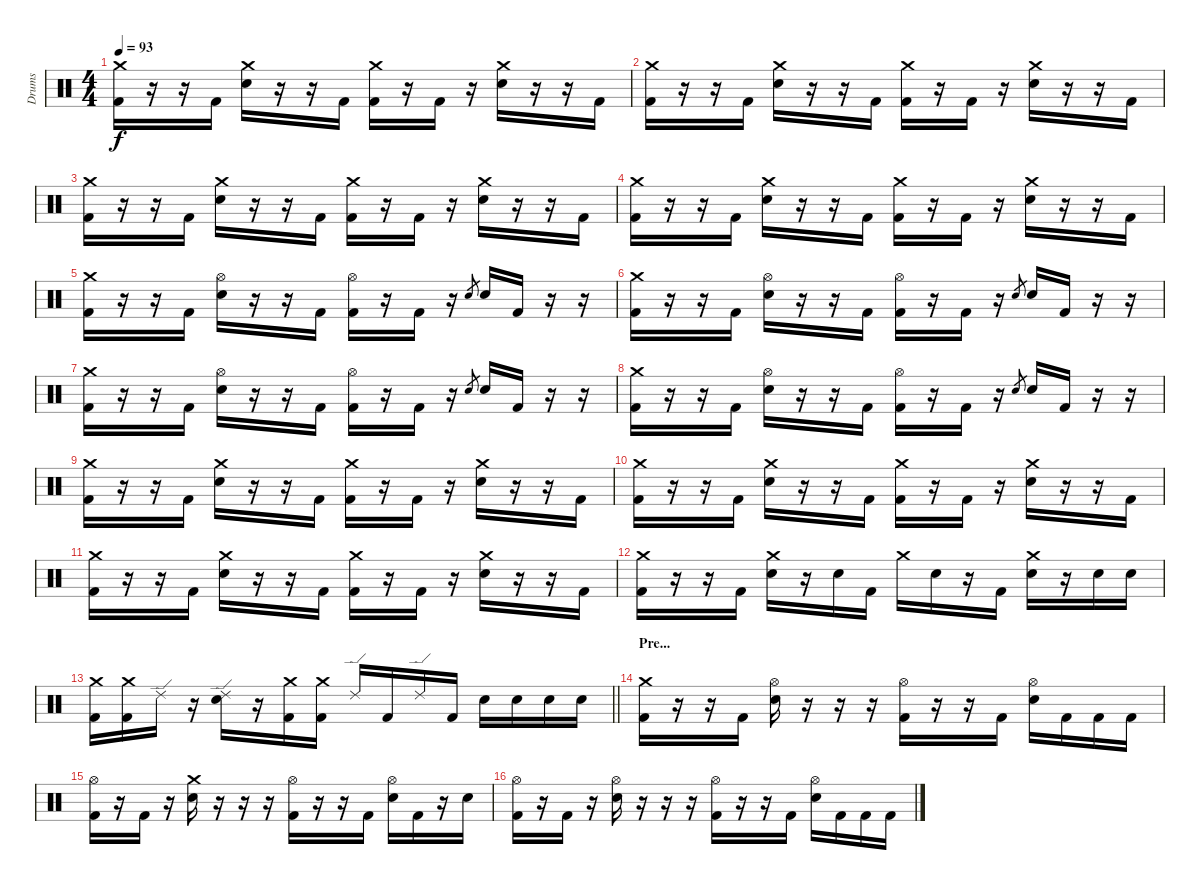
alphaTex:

\track ("Drums" "Drums") {instrument percussion}
\staff {score}
\articulation defaults
\ts (4 4)
\tempo 93
\clef neutral
\ks c
("Crash medium (hit)" "Kick (hit) 2").16{dy f} r.16 r.16 "Kick (hit) 2".16 ("Crash medium (hit)" "Electric Snare (hit)").16 r.16 r.16 "Kick (hit) 2".16 ("Crash medium (hit)" "Kick (hit) 2").16 r.16 "Kick (hit) 2".16 r.16 ("Crash medium (hit)" "Electric Snare (hit)").16 r.16 r.16 "Kick (hit) 2".16 |
("Crash medium (hit)" "Kick (hit) 2").16 r.16 r.16 "Kick (hit) 2".16 ("Crash medium (hit)" "Electric Snare (hit)").16 r.16 r.16 "Kick (hit) 2".16 ("Crash medium (hit)" "Kick (hit) 2").16 r.16 "Kick (hit) 2".16 r.16 ("Crash medium (hit)" "Electric Snare (hit)").16 r.16 r.16 "Kick (hit) 2".16 |
("Crash medium (hit)" "Kick (hit) 2").16 r.16 r.16 "Kick (hit) 2".16 ("Crash medium (hit)" "Electric Snare (hit)").16 r.16 r.16 "Kick (hit) 2".16 ("Crash medium (hit)" "Kick (hit) 2").16 r.16 "Kick (hit) 2".16 r.16 ("Crash medium (hit)" "Electric Snare (hit)").16 r.16 r.16 "Kick (hit) 2".16 |
("Crash medium (hit)" "Kick (hit) 2").16 r.16 r.16 "Kick (hit) 2".16 ("Crash medium (hit)" "Electric Snare (hit)").16 r.16 r.16 "Kick (hit) 2".16 ("Crash medium (hit)" "Kick (hit) 2").16 r.16 "Kick (hit) 2".16 r.16 ("Crash medium (hit)" "Electric Snare (hit)").16 r.16 r.16 "Kick (hit) 2".16 |
("Crash medium (hit)" "Kick (hit) 2").16 r.16 r.16 "Kick (hit) 2".16 ("Hi-Hat (open)" "Electric Snare (hit)").16 r.16 r.16 "Kick (hit) 2".16 ("Hi-Hat (open)" "Kick (hit) 2").16 r.16 "Kick (hit) 2".16 r.16 "Electric Snare (hit)".8{gr} "Electric Snare (hit)".16 "Kick (hit) 2".16 r.16 r.16 |
("Crash medium (hit)" "Kick (hit) 2").16 r.16 r.16 "Kick (hit) 2".16 ("Hi-Hat (open)" "Electric Snare (hit)").16 r.16 r.16 "Kick (hit) 2".16 ("Hi-Hat (open)" "Kick (hit) 2").16 r.16 "Kick (hit) 2".16 r.16 "Electric Snare (hit)".8{gr} "Electric Snare (hit)".16 "Kick (hit) 2".16 r.16 r.16 |
("Crash medium (hit)" "Kick (hit) 2").16 r.16 r.16 "Kick (hit) 2".16 ("Hi-Hat (open)" "Electric Snare (hit)").16 r.16 r.16 "Kick (hit) 2".16 ("Hi-Hat (open)" "Kick (hit) 2").16 r.16 "Kick (hit) 2".16 r.16 "Electric Snare (hit)".8{gr} "Electric Snare (hit)".16 "Kick (hit) 2".16 r.16 r.16 |
("Crash medium (hit)" "Kick (hit) 2").16 r.16 r.16 "Kick (hit) 2".16 ("Hi-Hat (open)" "Electric Snare (hit)").16 r.16 r.16 "Kick (hit) 2".16 ("Hi-Hat (open)" "Kick (hit) 2").16 r.16 "Kick (hit) 2".16 r.16 "Electric Snare (hit)".8{gr} "Electric Snare (hit)".16 "Kick (hit) 2".16 r.16 r.16 |
("Crash medium (hit)" "Kick (hit) 2").16 r.16 r.16 "Kick (hit) 2".16 ("Crash medium (hit)" "Electric Snare (hit)").16 r.16 r.16 "Kick (hit) 2".16 ("Crash medium (hit)" "Kick (hit) 2").16 r.16 "Kick (hit) 2".16 r.16 ("Crash medium (hit)" "Electric Snare (hit)").16 r.16 r.16 "Kick (hit) 2".16 |
("Crash medium (hit)" "Kick (hit) 2").16 r.16 r.16 "Kick (hit) 2".16 ("Crash medium (hit)" "Electric Snare (hit)").16 r.16 r.16 "Kick (hit) 2".16 ("Crash medium (hit)" "Kick (hit) 2").16 r.16 "Kick (hit) 2".16 r.16 ("Crash medium (hit)" "Electric Snare (hit)").16 r.16 r.16 "Kick (hit) 2".16 |
("Crash medium (hit)" "Kick (hit) 2").16 r.16 r.16 "Kick (hit) 2".16 ("Crash medium (hit)" "Electric Snare (hit)").16 r.16 r.16 "Kick (hit) 2".16 ("Crash medium (hit)" "Kick (hit) 2").16 r.16 "Kick (hit) 2".16 r.16 ("Crash medium (hit)" "Electric Snare (hit)").16 r.16 r.16 "Kick (hit) 2".16 |
("Crash medium (hit)" "Kick (hit) 2").16 r.16 r.16 "Kick (hit) 2".16 ("Crash medium (hit)" "Electric Snare (hit)").16 r.16 "Electric Snare (hit)".16 "Kick (hit) 2".16 "Crash medium (hit)".16 "Electric Snare (hit)".16 r.16 "Kick (hit) 2".16 ("Crash medium (hit)" "Electric Snare (hit)").16 r.16 "Electric Snare (hit)".16 "Electric Snare (hit)".16 |
\barLineRight lightlight
("Crash medium (hit)" "Kick (hit) 2").16 ("Crash medium (hit)" "Kick (hit) 2").16 "Ride (edge) 2".16 r.16 ("Ride (edge) 2" "Electric Snare (hit)").16 r.16 ("Crash medium (hit)" "Kick (hit) 2").16 ("Crash medium (hit)" "Kick (hit) 2").16 "Ride (edge) 2".16 "Kick (hit) 2".16 "Ride (edge) 2".16 "Kick (hit) 2".16 "Electric Snare (hit)".16 "Electric Snare (hit)".16 "Electric Snare (hit)".16 "Electric Snare (hit)".16 |
\section ("" "Pre...")
("Crash medium (hit)" "Kick (hit) 2").16 r.16 r.16 "Kick (hit) 2".16 ("Hi-Hat (open)" "Electric Snare (hit)").16 r.16 r.16 r.16 ("Hi-Hat (open)" "Kick (hit) 2").16 r.16 r.16 "Kick (hit) 2".16 ("Hi-Hat (open)" "Electric Snare (hit)").16 "Kick (hit) 2".16 "Kick (hit) 2".16 "Kick (hit) 2".16 |
("Hi-Hat (open)" "Kick (hit) 2").16 r.16 "Kick (hit) 2".16 r.16 ("Crash medium (hit)" "Electric Snare (hit)").16 r.16 r.16 r.16 ("Hi-Hat (open)" "Kick (hit) 2").16 r.16 r.16 "Kick (hit) 2".16 ("Hi-Hat (open)" "Electric Snare (hit)").16 "Kick (hit) 2".16 r.16 "Electric Snare (hit)".16 |
("Hi-Hat (open)" "Kick (hit) 2").16 r.16 "Kick (hit) 2".16 r.16 ("Hi-Hat (open)" "Electric Snare (hit)").16 r.16 r.16 r.16 ("Hi-Hat (open)" "Kick (hit) 2").16 r.16 r.16 "Kick (hit) 2".16 ("Hi-Hat (open)" "Electric Snare (hit)").16 "Kick (hit) 2".16 "Kick (hit) 2".16 "Kick (hit) 2".16
